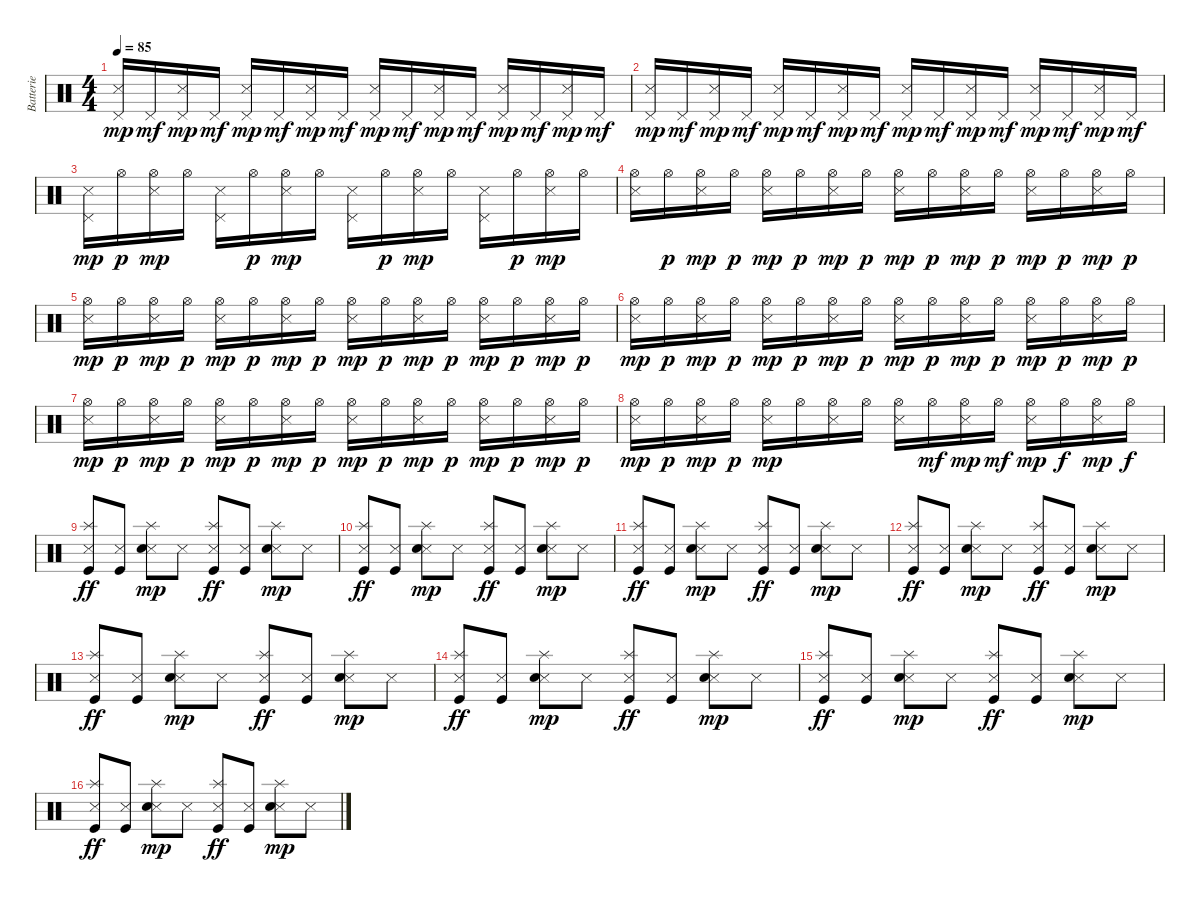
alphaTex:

\track ("Batterie" "Batterie") {instrument percussion}
\staff {score}
\articulation defaults
\ts (4 4)
\tempo 85
\clef neutral
\ks c
("Pedal Hi-Hat (hit)" "Snare (side stick) 3").16{dy mp} "Pedal Hi-Hat (hit)".16{dy mf} ("Pedal Hi-Hat (hit)" "Snare (side stick) 3").16{dy mp} "Pedal Hi-Hat (hit)".16{dy mf} ("Pedal Hi-Hat (hit)" "Snare (side stick) 3").16{dy mp} "Pedal Hi-Hat (hit)".16{dy mf} ("Pedal Hi-Hat (hit)" "Snare (side stick) 3").16{dy mp} "Pedal Hi-Hat (hit)".16{dy mf} ("Pedal Hi-Hat (hit)" "Snare (side stick) 3").16{dy mp} "Pedal Hi-Hat (hit)".16{dy mf} ("Pedal Hi-Hat (hit)" "Snare (side stick) 3").16{dy mp} "Pedal Hi-Hat (hit)".16{dy mf} ("Pedal Hi-Hat (hit)" "Snare (side stick) 3").16{dy mp} "Pedal Hi-Hat (hit)".16{dy mf} ("Pedal Hi-Hat (hit)" "Snare (side stick) 3").16{dy mp} "Pedal Hi-Hat (hit)".16{dy mf} |
("Pedal Hi-Hat (hit)" "Snare (side stick) 3").16{dy mp} "Pedal Hi-Hat (hit)".16{dy mf} ("Pedal Hi-Hat (hit)" "Snare (side stick) 3").16{dy mp} "Pedal Hi-Hat (hit)".16{dy mf} ("Pedal Hi-Hat (hit)" "Snare (side stick) 3").16{dy mp} "Pedal Hi-Hat (hit)".16{dy mf} ("Pedal Hi-Hat (hit)" "Snare (side stick) 3").16{dy mp} "Pedal Hi-Hat (hit)".16{dy mf} ("Pedal Hi-Hat (hit)" "Snare (side stick) 3").16{dy mp} "Pedal Hi-Hat (hit)".16{dy mf} ("Pedal Hi-Hat (hit)" "Snare (side stick) 3").16{dy mp} "Pedal Hi-Hat (hit)".16{dy mf} ("Pedal Hi-Hat (hit)" "Snare (side stick) 3").16{dy mp} "Pedal Hi-Hat (hit)".16{dy mf} ("Pedal Hi-Hat (hit)" "Snare (side stick) 3").16{dy mp} "Pedal Hi-Hat (hit)".16{dy mf} |
("Pedal Hi-Hat (hit)" "Snare (side stick) 3").16{dy mp} "Hi-Hat (open)".16{dy p} ("Hi-Hat (open)" "Snare (side stick) 3").16{dy mp} "Hi-Hat (open)".16 ("Pedal Hi-Hat (hit)" "Snare (side stick) 3").16 "Hi-Hat (open)".16{dy p} ("Hi-Hat (open)" "Snare (side stick) 3").16{dy mp} "Hi-Hat (open)".16 ("Pedal Hi-Hat (hit)" "Snare (side stick) 3").16 "Hi-Hat (open)".16{dy p} ("Hi-Hat (open)" "Snare (side stick) 3").16{dy mp} "Hi-Hat (open)".16 ("Pedal Hi-Hat (hit)" "Snare (side stick) 3").16 "Hi-Hat (open)".16{dy p} ("Hi-Hat (open)" "Snare (side stick) 3").16{dy mp} "Hi-Hat (open)".16 |
("Hi-Hat (open)" "Snare (side stick) 3").16 "Hi-Hat (open)".16{dy p} ("Hi-Hat (open)" "Snare (side stick) 3").16{dy mp} "Hi-Hat (open)".16{dy p} ("Hi-Hat (open)" "Snare (side stick) 3").16{dy mp} "Hi-Hat (open)".16{dy p} ("Hi-Hat (open)" "Snare (side stick) 3").16{dy mp} "Hi-Hat (open)".16{dy p} ("Hi-Hat (open)" "Snare (side stick) 3").16{dy mp} "Hi-Hat (open)".16{dy p} ("Hi-Hat (open)" "Snare (side stick) 3").16{dy mp} "Hi-Hat (open)".16{dy p} ("Hi-Hat (open)" "Snare (side stick) 3").16{dy mp} "Hi-Hat (open)".16{dy p} ("Hi-Hat (open)" "Snare (side stick) 3").16{dy mp} "Hi-Hat (open)".16{dy p} |
("Hi-Hat (open)" "Snare (side stick) 3").16{dy mp} "Hi-Hat (open)".16{dy p} ("Hi-Hat (open)" "Snare (side stick) 3").16{dy mp} "Hi-Hat (open)".16{dy p} ("Hi-Hat (open)" "Snare (side stick) 3").16{dy mp} "Hi-Hat (open)".16{dy p} ("Hi-Hat (open)" "Snare (side stick) 3").16{dy mp} "Hi-Hat (open)".16{dy p} ("Hi-Hat (open)" "Snare (side stick) 3").16{dy mp} "Hi-Hat (open)".16{dy p} ("Hi-Hat (open)" "Snare (side stick) 3").16{dy mp} "Hi-Hat (open)".16{dy p} ("Hi-Hat (open)" "Snare (side stick) 3").16{dy mp} "Hi-Hat (open)".16{dy p} ("Hi-Hat (open)" "Snare (side stick) 3").16{dy mp} "Hi-Hat (open)".16{dy p} |
("Hi-Hat (open)" "Snare (side stick) 3").16{dy mp} "Hi-Hat (open)".16{dy p} ("Hi-Hat (open)" "Snare (side stick) 3").16{dy mp} "Hi-Hat (open)".16{dy p} ("Hi-Hat (open)" "Snare (side stick) 3").16{dy mp} "Hi-Hat (open)".16{dy p} ("Hi-Hat (open)" "Snare (side stick) 3").16{dy mp} "Hi-Hat (open)".16{dy p} ("Hi-Hat (open)" "Snare (side stick) 3").16{dy mp} "Hi-Hat (open)".16{dy p} ("Hi-Hat (open)" "Snare (side stick) 3").16{dy mp} "Hi-Hat (open)".16{dy p} ("Hi-Hat (open)" "Snare (side stick) 3").16{dy mp} "Hi-Hat (open)".16{dy p} ("Hi-Hat (open)" "Snare (side stick) 3").16{dy mp} "Hi-Hat (open)".16{dy p} |
("Hi-Hat (open)" "Snare (side stick) 3").16{dy mp} "Hi-Hat (open)".16{dy p} ("Hi-Hat (open)" "Snare (side stick) 3").16{dy mp} "Hi-Hat (open)".16{dy p} ("Hi-Hat (open)" "Snare (side stick) 3").16{dy mp} "Hi-Hat (open)".16{dy p} ("Hi-Hat (open)" "Snare (side stick) 3").16{dy mp} "Hi-Hat (open)".16{dy p} ("Hi-Hat (open)" "Snare (side stick) 3").16{dy mp} "Hi-Hat (open)".16{dy p} ("Hi-Hat (open)" "Snare (side stick) 3").16{dy mp} "Hi-Hat (open)".16{dy p} ("Hi-Hat (open)" "Snare (side stick) 3").16{dy mp} "Hi-Hat (open)".16{dy p} ("Hi-Hat (open)" "Snare (side stick) 3").16{dy mp} "Hi-Hat (open)".16{dy p} |
("Hi-Hat (open)" "Snare (side stick) 3").16{dy mp} "Hi-Hat (open)".16{dy p} ("Hi-Hat (open)" "Snare (side stick) 3").16{dy mp} "Hi-Hat (open)".16{dy p} ("Hi-Hat (open)" "Snare (side stick) 3").16{dy mp} "Hi-Hat (open)".16 ("Hi-Hat (open)" "Snare (side stick) 3").16 "Hi-Hat (open)".16 ("Hi-Hat (open)" "Snare (side stick) 3").16 "Hi-Hat (open)".16{dy mf} ("Hi-Hat (open)" "Snare (side stick) 3").16{dy mp} "Hi-Hat (open)".16{dy mf} ("Hi-Hat (open)" "Snare (side stick) 3").16{dy mp} "Hi-Hat (open)".16{dy f} ("Hi-Hat (open)" "Snare (side stick) 3").16{dy mp} "Hi-Hat (open)".16{dy f} |
("Splash (hit)" "Snare (side stick) 3" "Kick (hit)").8{dy ff} ("Snare (side stick) 3" "Kick (hit)").8 ("Splash (hit)" "Snare (side stick) 3" "Snare (hit) 2").8{dy mp} "Snare (side stick) 3".8 ("Splash (hit)" "Snare (side stick) 3" "Kick (hit)").8{dy ff} ("Snare (side stick) 3" "Kick (hit)").8 ("Splash (hit)" "Snare (side stick) 3" "Snare (hit) 2").8{dy mp} "Snare (side stick) 3".8 |
("Splash (hit)" "Snare (side stick) 3" "Kick (hit)").8{dy ff} ("Snare (side stick) 3" "Kick (hit)").8 ("Splash (hit)" "Snare (side stick) 3" "Snare (hit) 2").8{dy mp} "Snare (side stick) 3".8 ("Splash (hit)" "Snare (side stick) 3" "Kick (hit)").8{dy ff} ("Snare (side stick) 3" "Kick (hit)").8 ("Splash (hit)" "Snare (side stick) 3" "Snare (hit) 2").8{dy mp} "Snare (side stick) 3".8 |
("Splash (hit)" "Snare (side stick) 3" "Kick (hit)").8{dy ff} ("Snare (side stick) 3" "Kick (hit)").8 ("Splash (hit)" "Snare (side stick) 3" "Snare (hit) 2").8{dy mp} "Snare (side stick) 3".8 ("Splash (hit)" "Snare (side stick) 3" "Kick (hit)").8{dy ff} ("Snare (side stick) 3" "Kick (hit)").8 ("Splash (hit)" "Snare (side stick) 3" "Snare (hit) 2").8{dy mp} "Snare (side stick) 3".8 |
("Splash (hit)" "Snare (side stick) 3" "Kick (hit)").8{dy ff} ("Snare (side stick) 3" "Kick (hit)").8 ("Splash (hit)" "Snare (side stick) 3" "Snare (hit) 2").8{dy mp} "Snare (side stick) 3".8 ("Splash (hit)" "Snare (side stick) 3" "Kick (hit)").8{dy ff} ("Snare (side stick) 3" "Kick (hit)").8 ("Splash (hit)" "Snare (side stick) 3" "Snare (hit) 2").8{dy mp} "Snare (side stick) 3".8 |
("Splash (hit)" "Snare (side stick) 3" "Kick (hit)").8{dy ff} ("Snare (side stick) 3" "Kick (hit)").8 ("Splash (hit)" "Snare (side stick) 3" "Snare (hit) 2").8{dy mp} "Snare (side stick) 3".8 ("Splash (hit)" "Snare (side stick) 3" "Kick (hit)").8{dy ff} ("Snare (side stick) 3" "Kick (hit)").8 ("Splash (hit)" "Snare (side stick) 3" "Snare (hit) 2").8{dy mp} "Snare (side stick) 3".8 |
("Splash (hit)" "Snare (side stick) 3" "Kick (hit)").8{dy ff} ("Snare (side stick) 3" "Kick (hit)").8 ("Splash (hit)" "Snare (side stick) 3" "Snare (hit) 2").8{dy mp} "Snare (side stick) 3".8 ("Splash (hit)" "Snare (side stick) 3" "Kick (hit)").8{dy ff} ("Snare (side stick) 3" "Kick (hit)").8 ("Splash (hit)" "Snare (side stick) 3" "Snare (hit) 2").8{dy mp} "Snare (side stick) 3".8 |
("Splash (hit)" "Snare (side stick) 3" "Kick (hit)").8{dy ff} ("Snare (side stick) 3" "Kick (hit)").8 ("Splash (hit)" "Snare (side stick) 3" "Snare (hit) 2").8{dy mp} "Snare (side stick) 3".8 ("Splash (hit)" "Snare (side stick) 3" "Kick (hit)").8{dy ff} ("Snare (side stick) 3" "Kick (hit)").8 ("Splash (hit)" "Snare (side stick) 3" "Snare (hit) 2").8{dy mp} "Snare (side stick) 3".8 |
("Splash (hit)" "Snare (side stick) 3" "Kick (hit)").8{dy ff} ("Snare (side stick) 3" "Kick (hit)").8 ("Splash (hit)" "Snare (side stick) 3" "Snare (hit) 2").8{dy mp} "Snare (side stick) 3".8 ("Splash (hit)" "Snare (side stick) 3" "Kick (hit)").8{dy ff} ("Snare (side stick) 3" "Kick (hit)").8 ("Splash (hit)" "Snare (side stick) 3" "Snare (hit) 2").8{dy mp} "Snare (side stick) 3".8
